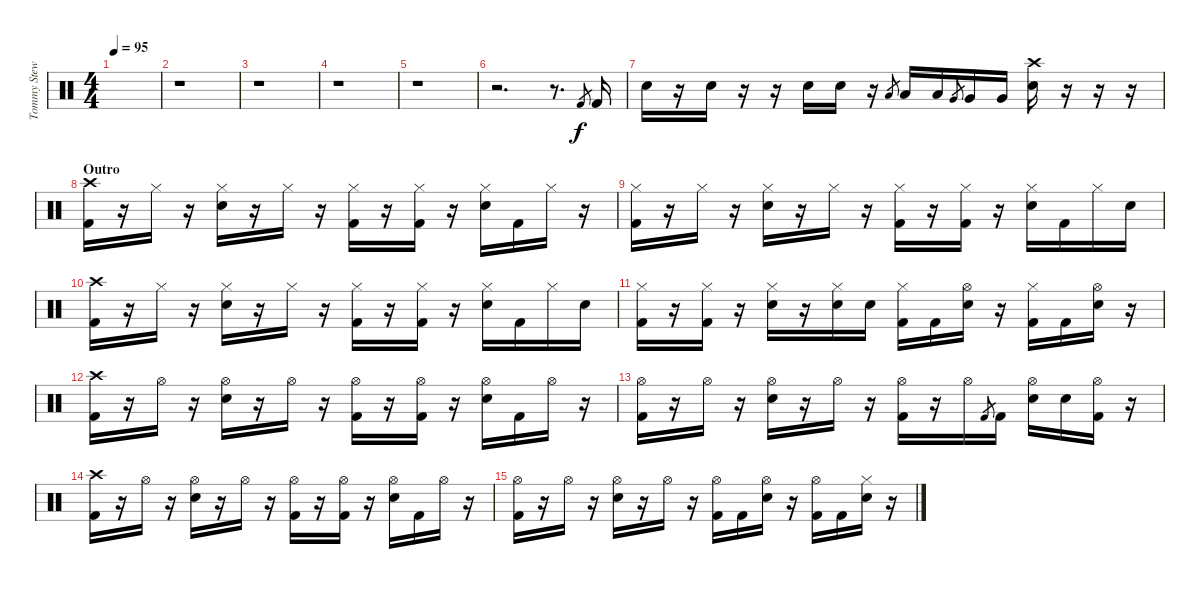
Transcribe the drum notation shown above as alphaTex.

\track ("Tommy Stewart - Drums" "Tommy Stew") {instrument percussion}
\staff {score}
\articulation defaults
\ts (4 4)
\tempo 95
\clef neutral
\ks c
|
r.1 |
r.1 |
r.1 |
r.1 |
r.2{d} r.8{d} "Kick (hit) 2".8{gr} "Kick (hit) 2".16 |
"Snare (hit) 2".16 r.16 "Snare (hit) 2".16 r.16 r.16 "Snare (hit) 2".16 "Snare (hit) 2".16 r.16 "Low Tom (hit)".8{gr} "Low Tom (hit)".16 "Low Tom (hit)".16 "Very Low Tom (hit)".8{gr} "Very Low Tom (hit)".16 "Very Low Tom (hit)".16 ("Crash high (hit)" "Snare (hit) 2").16 r.16 r.16 r.16 |
\section ("" "Outro")
("Crash high (hit)" "Kick (hit) 2").16 r.16 "Hi-Hat (closed)".16 r.16 ("Hi-Hat (closed)" "Snare (hit) 2").16 r.16 "Hi-Hat (closed)".16 r.16 ("Hi-Hat (closed)" "Kick (hit) 2").16 r.16 ("Hi-Hat (closed)" "Kick (hit) 2").16 r.16 ("Hi-Hat (closed)" "Snare (hit) 2").16 "Kick (hit) 2".16 "Hi-Hat (closed)".16 r.16 |
("Hi-Hat (closed)" "Kick (hit) 2").16 r.16 "Hi-Hat (closed)".16 r.16 ("Hi-Hat (closed)" "Snare (hit) 2").16 r.16 "Hi-Hat (closed)".16 r.16 ("Hi-Hat (closed)" "Kick (hit) 2").16 r.16 ("Hi-Hat (closed)" "Kick (hit) 2").16 r.16 ("Hi-Hat (closed)" "Snare (hit) 2").16 "Kick (hit) 2".16 "Hi-Hat (closed)".16 "Snare (hit) 2".16 |
("Crash high (hit)" "Kick (hit) 2").16 r.16 "Hi-Hat (closed)".16 r.16 ("Hi-Hat (closed)" "Snare (hit) 2").16 r.16 "Hi-Hat (closed)".16 r.16 ("Hi-Hat (closed)" "Kick (hit) 2").16 r.16 ("Hi-Hat (closed)" "Kick (hit) 2").16 r.16 ("Hi-Hat (closed)" "Snare (hit) 2").16 "Kick (hit) 2".16 "Hi-Hat (closed)".16 "Snare (hit) 2".16 |
("Hi-Hat (closed)" "Kick (hit) 2").16 r.16 ("Hi-Hat (closed)" "Kick (hit) 2").16 r.16 ("Hi-Hat (closed)" "Snare (hit) 2").16 r.16 ("Hi-Hat (closed)" "Snare (hit) 2").16 "Snare (hit) 2".16 ("Hi-Hat (closed)" "Kick (hit) 2").16 "Kick (hit) 2".16 ("Hi-Hat (open)" "Snare (hit) 2").16 r.16 ("Hi-Hat (closed)" "Kick (hit) 2").16 "Kick (hit) 2".16 ("Hi-Hat (open)" "Snare (hit) 2").16 r.16 |
("Crash high (hit)" "Kick (hit) 2").16 r.16 "Hi-Hat (open)".16 r.16 ("Hi-Hat (open)" "Snare (hit) 2").16 r.16 "Hi-Hat (open)".16 r.16 ("Hi-Hat (open)" "Kick (hit) 2").16 r.16 ("Hi-Hat (open)" "Kick (hit) 2").16 r.16 ("Hi-Hat (open)" "Snare (hit) 2").16 "Kick (hit) 2".16 "Hi-Hat (open)".16 r.16 |
("Hi-Hat (open)" "Kick (hit) 2").16 r.16 "Hi-Hat (open)".16 r.16 ("Hi-Hat (open)" "Snare (hit) 2").16 r.16 "Hi-Hat (open)".16 r.16 ("Hi-Hat (open)" "Kick (hit) 2").16 r.16 "Hi-Hat (open)".16 "Kick (hit) 2".8{gr} "Kick (hit) 2".16 ("Hi-Hat (open)" "Snare (hit) 2").16 "Snare (hit) 2".16 ("Hi-Hat (open)" "Kick (hit) 2").16 r.16 |
("Crash high (hit)" "Kick (hit) 2").16 r.16 "Hi-Hat (open)".16 r.16 ("Hi-Hat (open)" "Snare (hit) 2").16 r.16 "Hi-Hat (open)".16 r.16 ("Hi-Hat (open)" "Kick (hit) 2").16 r.16 ("Hi-Hat (open)" "Kick (hit) 2").16 r.16 ("Hi-Hat (open)" "Snare (hit) 2").16 "Kick (hit) 2".16 "Hi-Hat (open)".16 r.16 |
("Hi-Hat (open)" "Kick (hit) 2").16 r.16 "Hi-Hat (open)".16 r.16 ("Hi-Hat (open)" "Snare (hit) 2").16 r.16 "Hi-Hat (open)".16 r.16 ("Hi-Hat (open)" "Kick (hit) 2").16 "Kick (hit) 2".16 ("Hi-Hat (open)" "Snare (hit) 2").16 r.16 ("Hi-Hat (open)" "Kick (hit) 2").16 "Kick (hit) 2".16 ("Hi-Hat (closed)" "Snare (hit) 2").16 r.16
